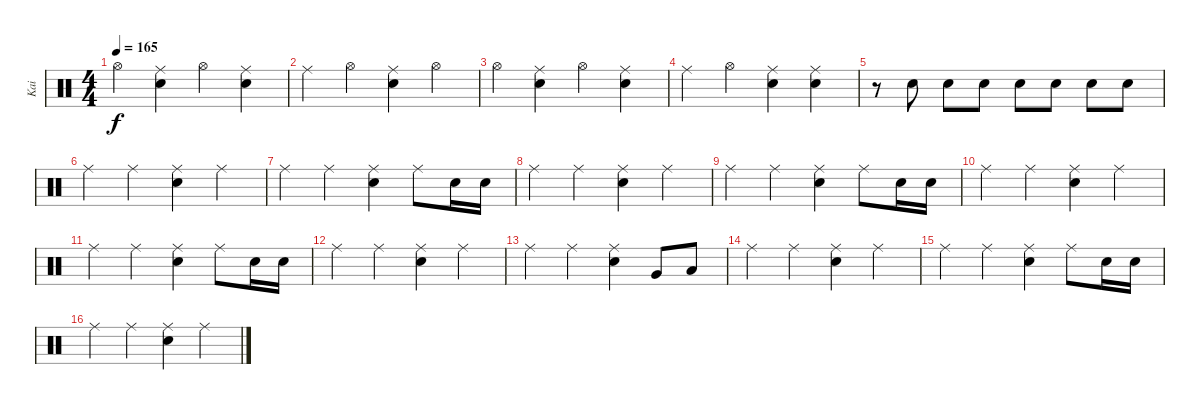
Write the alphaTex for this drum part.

\track ("Kai" "Kai") {instrument percussion}
\staff {score}
\articulation defaults
\ts (4 4)
\tempo 165
\clef neutral
\ks c "Hi-Hat (open)".4{dy f}
("Ride (middle)" "Snare (hit) 2").4 "Hi-Hat (open)".4 ("Ride (middle)" "Snare (hit) 2").4 |
"Ride (middle)".4 "Hi-Hat (open)".4 ("Ride (middle)" "Snare (hit) 2").4 "Hi-Hat (open)".4 |
"Hi-Hat (open)".4 ("Ride (middle)" "Snare (hit) 2").4 "Hi-Hat (open)".4 ("Ride (middle)" "Snare (hit) 2").4 |
"Ride (middle)".4 "Hi-Hat (open)".4 ("Ride (middle)" "Snare (hit) 2").4 ("Ride (middle)" "Snare (hit) 2").4 |
r.8 "Snare (hit) 2".8 "Snare (hit) 2".8 "Snare (hit) 2".8 "Snare (hit) 2".8 "Snare (hit) 2".8 "Snare (hit) 2".8 "Snare (hit) 2".8 |
"Ride (middle)".4 "Ride (middle)".4 ("Ride (middle)" "Snare (hit) 2").4 "Ride (middle)".4 |
"Ride (middle)".4 "Ride (middle)".4 ("Ride (middle)" "Snare (hit) 2").4 "Ride (middle)".8 "Snare (hit) 2".16 "Snare (hit) 2".16 |
"Ride (middle)".4 "Ride (middle)".4 ("Ride (middle)" "Snare (hit) 2").4 "Ride (middle)".4 |
"Ride (middle)".4 "Ride (middle)".4 ("Ride (middle)" "Snare (hit) 2").4 "Ride (middle)".8 "Snare (hit) 2".16 "Snare (hit) 2".16 |
"Ride (middle)".4 "Ride (middle)".4 ("Ride (middle)" "Snare (hit) 2").4 "Ride (middle)".4 |
"Ride (middle)".4 "Ride (middle)".4 ("Ride (middle)" "Snare (hit) 2").4 "Ride (middle)".8 "Snare (hit) 2".16 "Snare (hit) 2".16 |
"Ride (middle)".4 "Ride (middle)".4 ("Ride (middle)" "Snare (hit) 2").4 "Ride (middle)".4 |
"Ride (middle)".4 "Ride (middle)".4 ("Ride (middle)" "Snare (hit) 2").4 "Very Low Tom (hit)".8 "Low Tom (hit)".8 |
"Ride (middle)".4 "Ride (middle)".4 ("Ride (middle)" "Snare (hit) 2").4 "Ride (middle)".4 |
"Ride (middle)".4 "Ride (middle)".4 ("Ride (middle)" "Snare (hit) 2").4 "Ride (middle)".8 "Snare (hit) 2".16 "Snare (hit) 2".16 |
"Ride (middle)".4 "Ride (middle)".4 ("Ride (middle)" "Snare (hit) 2").4 "Ride (middle)".4
